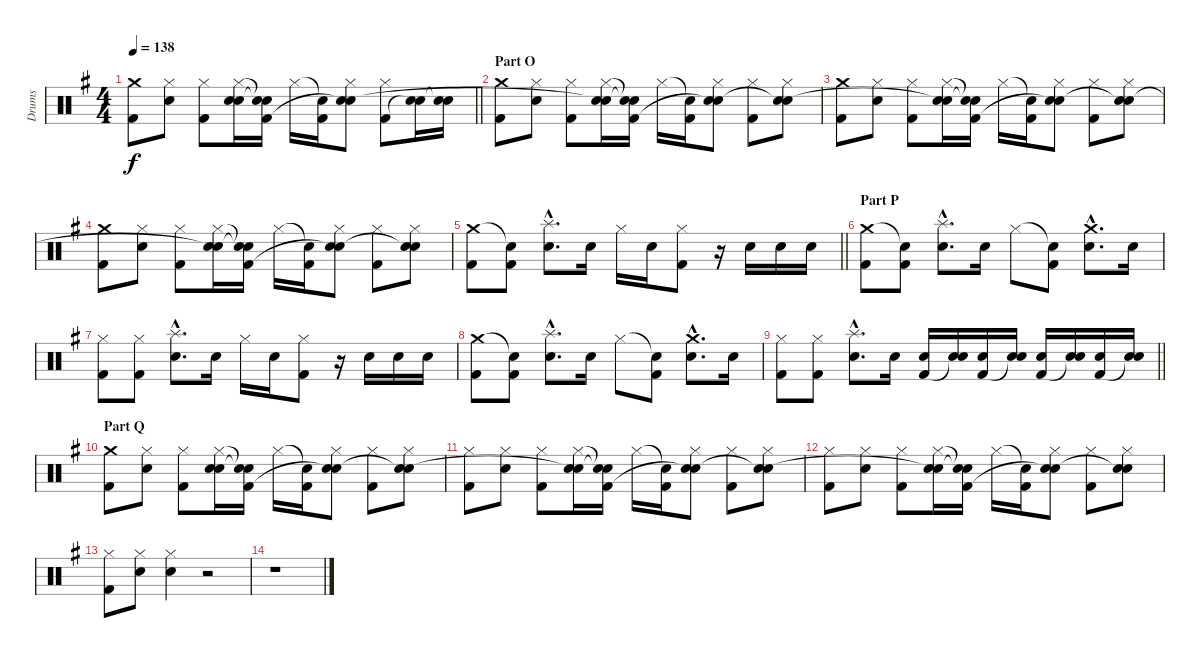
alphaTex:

\track ("Drums" "Drums") {instrument percussion}
\staff {score}
\articulation defaults
\ts (4 4)
\tempo 138
\clef neutral
\barLineRight lightlight
\ks g
("Crash medium (hit)" "Kick (hit) 2").8{dy f} ("Hi-Hat (closed)" "Electric Snare (hit)").8 ("Hi-Hat (closed)" "Kick (hit) 2").8 ("Hi-Hat (closed)" "Electric Snare (hit)" "Snare (hit)"{t}).16 ("Snare (hit)"{t} "Snare (hit)"{t} "Kick (hit) 2").16 "Hi-Hat (closed)".16 ("Snare (hit)"{t} "Kick (hit) 2").16 ("Hi-Hat (closed)" "Electric Snare (hit)" "Snare (hit)"{t}).8 ("Hi-Hat (closed)" "Kick (hit) 2").8 ("Electric Snare (hit)" "Snare (hit)"{t}).16 ("Electric Snare (hit)" "Snare (hit)"{t}).16 |
\section ("" "Part O")
("Crash medium (hit)" "Kick (hit) 2").8 ("Hi-Hat (closed)" "Electric Snare (hit)").8 ("Hi-Hat (closed)" "Kick (hit) 2").8 ("Hi-Hat (closed)" "Electric Snare (hit)" "Snare (hit)"{t}).16 ("Snare (hit)"{t} "Snare (hit)"{t} "Kick (hit) 2").16 "Hi-Hat (closed)".16 ("Snare (hit)"{t} "Kick (hit) 2").16 ("Hi-Hat (closed)" "Electric Snare (hit)" "Snare (hit)"{t}).8 ("Hi-Hat (closed)" "Kick (hit) 2").8 ("Hi-Hat (closed)" "Electric Snare (hit)" "Snare (hit)"{t}).8 |
("Crash medium (hit)" "Kick (hit) 2").8 ("Hi-Hat (closed)" "Electric Snare (hit)").8 ("Hi-Hat (closed)" "Kick (hit) 2").8 ("Hi-Hat (closed)" "Electric Snare (hit)" "Snare (hit)"{t}).16 ("Snare (hit)"{t} "Snare (hit)"{t} "Kick (hit) 2").16 "Hi-Hat (closed)".16 ("Snare (hit)"{t} "Kick (hit) 2").16 ("Hi-Hat (closed)" "Electric Snare (hit)" "Snare (hit)"{t}).8 ("Hi-Hat (closed)" "Kick (hit) 2").8 ("Hi-Hat (closed)" "Electric Snare (hit)" "Snare (hit)"{t}).8 |
("Crash medium (hit)" "Kick (hit) 2").8 ("Hi-Hat (closed)" "Electric Snare (hit)").8 ("Hi-Hat (closed)" "Kick (hit) 2").8 ("Hi-Hat (closed)" "Electric Snare (hit)" "Snare (hit)"{t}).16 ("Snare (hit)"{t} "Snare (hit)"{t} "Kick (hit) 2").16 "Hi-Hat (closed)".16 ("Snare (hit)"{t} "Kick (hit) 2").16 ("Hi-Hat (closed)" "Electric Snare (hit)" "Snare (hit)"{t}).8 ("Hi-Hat (closed)" "Kick (hit) 2").8 ("Hi-Hat (closed)" "Electric Snare (hit)" "Snare (hit)"{t}).8 |
\barLineRight lightlight
("Crash medium (hit)" "Kick (hit) 2").8 ("Snare (hit)"{t} "Kick (hit) 2").8 ("Splash (hit)"{hac} "Electric Snare (hit)"{hac}).8{d} "Electric Snare (hit)".16 "Hi-Hat (closed)".16 "Electric Snare (hit)".16 ("Hi-Hat (closed)" "Kick (hit) 2").8 r.16 "Electric Snare (hit)".16 "Electric Snare (hit)".16 "Electric Snare (hit)".16 |
\section ("" "Part P")
("Crash medium (hit)" "Kick (hit) 2").8 ("Snare (hit)"{t} "Kick (hit) 2").8 ("Splash (hit)"{hac} "Electric Snare (hit)"{hac}).8{d} "Electric Snare (hit)".16 "Hi-Hat (closed)".8 ("Snare (hit)"{t} "Kick (hit) 2").8 ("Crash medium (hit)"{hac} "Electric Snare (hit)"{hac}).8{d} "Electric Snare (hit)".16 |
("Hi-Hat (closed)" "Kick (hit) 2").8 ("Hi-Hat (closed)" "Kick (hit) 2").8 ("Splash (hit)"{hac} "Electric Snare (hit)"{hac}).8{d} "Electric Snare (hit)".16 "Hi-Hat (closed)".16 "Electric Snare (hit)".16 ("Hi-Hat (closed)" "Kick (hit) 2").8 r.16 "Electric Snare (hit)".16 "Electric Snare (hit)".16 "Electric Snare (hit)".16 |
("Crash medium (hit)" "Kick (hit) 2").8 ("Snare (hit)"{t} "Kick (hit) 2").8 ("Splash (hit)"{hac} "Electric Snare (hit)"{hac}).8{d} "Electric Snare (hit)".16 "Hi-Hat (closed)".8 ("Snare (hit)"{t} "Kick (hit) 2").8 ("Crash medium (hit)"{hac} "Electric Snare (hit)"{hac}).8{d} "Electric Snare (hit)".16 |
\barLineRight lightlight
("Hi-Hat (closed)" "Kick (hit) 2").8 ("Hi-Hat (closed)" "Kick (hit) 2").8 ("Splash (hit)"{hac} "Electric Snare (hit)"{hac}).8{d} "Electric Snare (hit)".16 ("Electric Snare (hit)" "Kick (hit) 2").16 ("Electric Snare (hit)" "Snare (hit)"{t}).16 ("Electric Snare (hit)" "Kick (hit) 2").16 ("Electric Snare (hit)" "Snare (hit)"{t}).16 ("Electric Snare (hit)" "Kick (hit) 2").16 ("Electric Snare (hit)" "Snare (hit)"{t}).16 ("Electric Snare (hit)" "Kick (hit) 2").16 ("Electric Snare (hit)" "Snare (hit)"{t}).16 |
\section ("" "Part Q")
("Crash medium (hit)" "Kick (hit) 2").8 ("Hi-Hat (closed)" "Electric Snare (hit)").8 ("Hi-Hat (closed)" "Kick (hit) 2").8 ("Hi-Hat (closed)" "Electric Snare (hit)" "Snare (hit)").16 ("Snare (hit)"{t} "Snare (hit)"{t} "Kick (hit) 2").16 "Hi-Hat (closed)".16 ("Snare (hit)"{t} "Kick (hit) 2").16 ("Hi-Hat (closed)" "Electric Snare (hit)" "Snare (hit)"{t}).8 ("Hi-Hat (closed)" "Kick (hit) 2").8 ("Hi-Hat (closed)" "Electric Snare (hit)" "Snare (hit)"{t}).8 |
("Hi-Hat (closed)" "Kick (hit) 2").8 ("Hi-Hat (closed)" "Electric Snare (hit)").8 ("Hi-Hat (closed)" "Kick (hit) 2").8 ("Hi-Hat (closed)" "Electric Snare (hit)" "Snare (hit)"{t}).16 ("Snare (hit)"{t} "Snare (hit)"{t} "Kick (hit) 2").16 "Hi-Hat (closed)".16 ("Snare (hit)"{t} "Kick (hit) 2").16 ("Hi-Hat (closed)" "Electric Snare (hit)" "Snare (hit)"{t}).8 ("Hi-Hat (closed)" "Kick (hit) 2").8 ("Hi-Hat (closed)" "Electric Snare (hit)" "Snare (hit)"{t}).8 |
("Hi-Hat (closed)" "Kick (hit) 2").8 ("Hi-Hat (closed)" "Electric Snare (hit)").8 ("Hi-Hat (closed)" "Kick (hit) 2").8 ("Hi-Hat (closed)" "Electric Snare (hit)" "Snare (hit)"{t}).16 ("Snare (hit)"{t} "Snare (hit)"{t} "Kick (hit) 2").16 "Hi-Hat (closed)".16 ("Snare (hit)"{t} "Kick (hit) 2").16 ("Hi-Hat (closed)" "Electric Snare (hit)" "Snare (hit)"{t}).8 ("Hi-Hat (closed)" "Kick (hit) 2").8 ("Hi-Hat (closed)" "Electric Snare (hit)" "Snare (hit)"{t}).8 |
("Hi-Hat (closed)" "Kick (hit) 2").8 ("Hi-Hat (closed)" "Electric Snare (hit)").8 ("Hi-Hat (closed)" "Electric Snare (hit)").4 r.2 |
r.1
